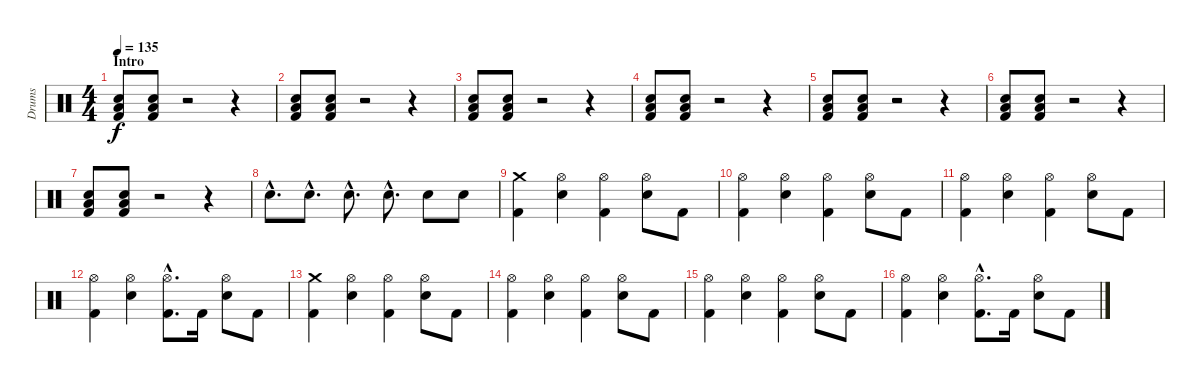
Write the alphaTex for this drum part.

\track ("Drums" "Drums") {instrument percussion}
\staff {score}
\articulation defaults
\ts (4 4)
\section ("" "Intro")
\tempo 135
\clef neutral
\ks c
("Electric Snare (hit)" "Low Floor Tom (hit)" "Kick (hit) 2").8{dy f} ("Electric Snare (hit)" "Low Floor Tom (hit)" "Kick (hit) 2").8 r.2 r.4 |
("Electric Snare (hit)" "Low Floor Tom (hit)" "Kick (hit) 2").8 ("Electric Snare (hit)" "Low Floor Tom (hit)" "Kick (hit) 2").8 r.2 r.4 |
("Electric Snare (hit)" "Low Floor Tom (hit)" "Kick (hit) 2").8 ("Electric Snare (hit)" "Low Floor Tom (hit)" "Kick (hit) 2").8 r.2 r.4 |
("Electric Snare (hit)" "Low Floor Tom (hit)" "Kick (hit) 2").8 ("Electric Snare (hit)" "Low Floor Tom (hit)" "Kick (hit) 2").8 r.2 r.4 |
("Electric Snare (hit)" "Low Floor Tom (hit)" "Kick (hit) 2").8 ("Electric Snare (hit)" "Low Floor Tom (hit)" "Kick (hit) 2").8 r.2 r.4 |
("Electric Snare (hit)" "Low Floor Tom (hit)" "Kick (hit) 2").8 ("Electric Snare (hit)" "Low Floor Tom (hit)" "Kick (hit) 2").8 r.2 r.4 |
("Electric Snare (hit)" "Low Floor Tom (hit)" "Kick (hit) 2").8 ("Electric Snare (hit)" "Low Floor Tom (hit)" "Kick (hit) 2").8 r.2 r.4 |
"Electric Snare (hit)"{hac}.8{d} "Electric Snare (hit)"{hac}.8{d} "Electric Snare (hit)"{hac}.8{d} "Electric Snare (hit)"{hac}.8{d} "Electric Snare (hit)".8 "Electric Snare (hit)".8 |
("Crash medium (hit)" "Kick (hit) 2").4 ("Hi-Hat (open)" "Electric Snare (hit)").4 ("Hi-Hat (open)" "Kick (hit) 2").4 ("Hi-Hat (open)" "Electric Snare (hit)").8 "Kick (hit) 2".8 |
("Hi-Hat (open)" "Kick (hit) 2").4 ("Hi-Hat (open)" "Electric Snare (hit)").4 ("Hi-Hat (open)" "Kick (hit) 2").4 ("Hi-Hat (open)" "Electric Snare (hit)").8 "Kick (hit) 2".8 |
("Hi-Hat (open)" "Kick (hit) 2").4 ("Hi-Hat (open)" "Electric Snare (hit)").4 ("Hi-Hat (open)" "Kick (hit) 2").4 ("Hi-Hat (open)" "Electric Snare (hit)").8 "Kick (hit) 2".8 |
("Hi-Hat (open)" "Kick (hit) 2").4 ("Hi-Hat (open)" "Electric Snare (hit)").4 ("Hi-Hat (open)"{hac} "Kick (hit) 2"{hac}).8{d} "Kick (hit) 2".16 ("Hi-Hat (open)" "Electric Snare (hit)").8 "Kick (hit) 2".8 |
("Crash medium (hit)" "Kick (hit) 2").4 ("Hi-Hat (open)" "Electric Snare (hit)").4 ("Hi-Hat (open)" "Kick (hit) 2").4 ("Hi-Hat (open)" "Electric Snare (hit)").8 "Kick (hit) 2".8 |
("Hi-Hat (open)" "Kick (hit) 2").4 ("Hi-Hat (open)" "Electric Snare (hit)").4 ("Hi-Hat (open)" "Kick (hit) 2").4 ("Hi-Hat (open)" "Electric Snare (hit)").8 "Kick (hit) 2".8 |
("Hi-Hat (open)" "Kick (hit) 2").4 ("Hi-Hat (open)" "Electric Snare (hit)").4 ("Hi-Hat (open)" "Kick (hit) 2").4 ("Hi-Hat (open)" "Electric Snare (hit)").8 "Kick (hit) 2".8 |
("Hi-Hat (open)" "Kick (hit) 2").4 ("Hi-Hat (open)" "Electric Snare (hit)").4 ("Hi-Hat (open)"{hac} "Kick (hit) 2"{hac}).8{d} "Kick (hit) 2".16 ("Hi-Hat (open)" "Electric Snare (hit)").8 "Kick (hit) 2".8
